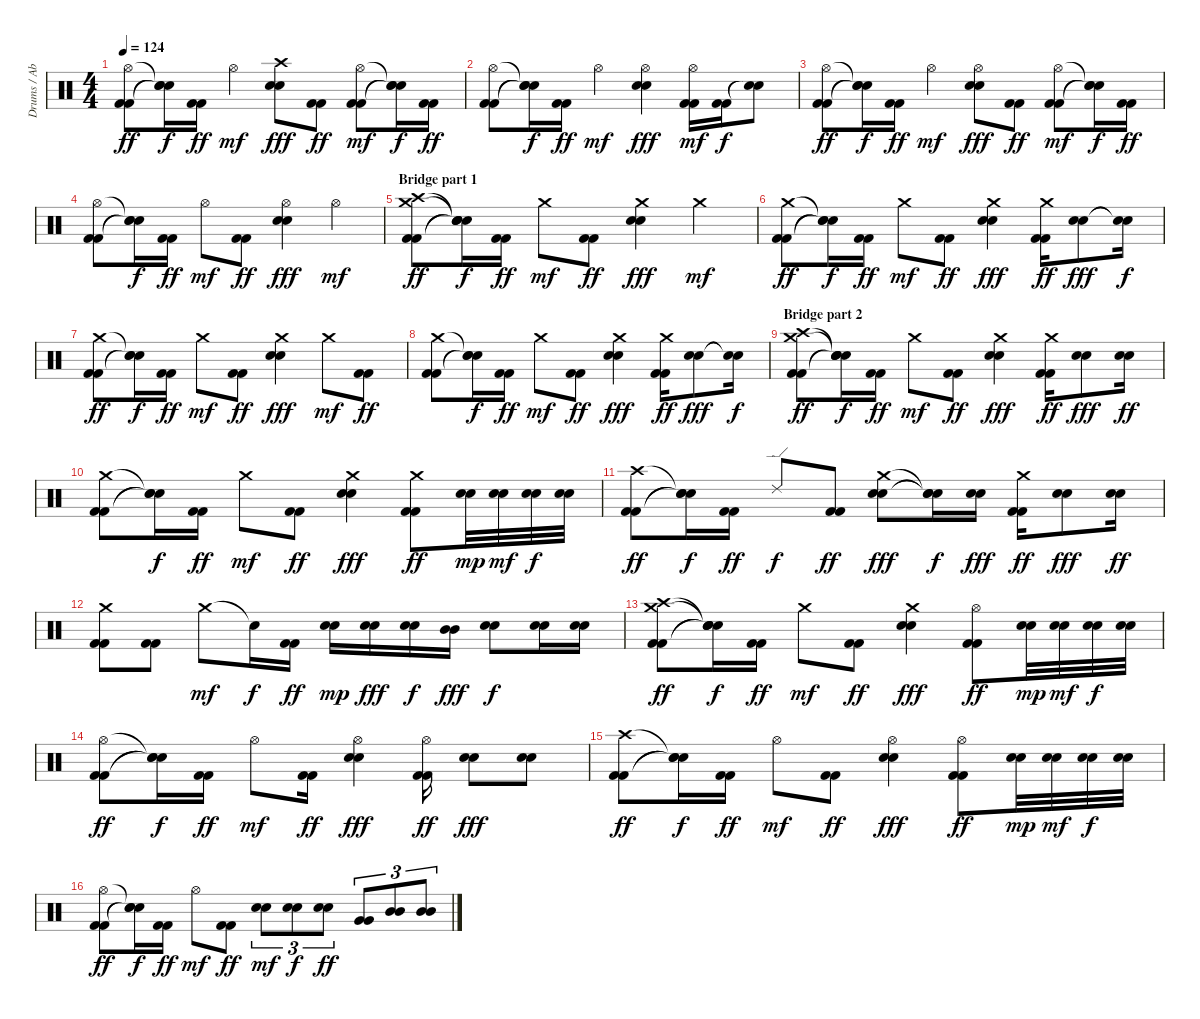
\track ("Drums / Abe Cunningham" "Drums / Ab") {instrument percussion}
\staff {score}
\articulation defaults
\ts (4 4)
\tempo 124
\clef neutral
\ks c
("Hi-Hat (open)" "Kick (hit) 2" "Kick (hit) 2").8{dy ff} ("Snare (hit)"{t} "Snare (hit)"{t} "Snare (hit)"{t}).16{dy f} ("Kick (hit) 2" "Kick (hit) 2").16{dy ff} "Hi-Hat (open)".4{dy mf} ("Crash high (hit)" "Electric Snare (hit)" "Electric Snare (hit)").8{dy fff} ("Kick (hit) 2" "Kick (hit) 2").8{dy ff} ("Hi-Hat (open)" "Kick (hit) 2" "Kick (hit) 2").8{dy mf} ("Snare (hit)"{t} "Snare (hit)"{t} "Snare (hit)"{t}).16{dy f} ("Kick (hit) 2" "Kick (hit) 2").16{dy ff} |
("Hi-Hat (open)" "Kick (hit) 2" "Kick (hit) 2").8 ("Snare (hit)"{t} "Snare (hit)"{t} "Snare (hit)"{t}).16{dy f} ("Kick (hit) 2" "Kick (hit) 2").16{dy ff} "Hi-Hat (open)".4{dy mf} ("Hi-Hat (open)" "Electric Snare (hit)" "Electric Snare (hit)").4{dy fff} ("Hi-Hat (open)" "Kick (hit) 2" "Kick (hit) 2").16{dy mf} ("Kick (hit) 2" "Kick (hit) 2").16{dy f} ("Snare (hit)"{t} "Snare (hit)"{t}).8 |
("Hi-Hat (open)" "Kick (hit) 2" "Kick (hit) 2").8{dy ff} ("Snare (hit)"{t} "Snare (hit)"{t} "Snare (hit)"{t}).16{dy f} ("Kick (hit) 2" "Kick (hit) 2").16{dy ff} "Hi-Hat (open)".4{dy mf} ("Hi-Hat (open)" "Electric Snare (hit)" "Electric Snare (hit)").8{dy fff} ("Kick (hit) 2" "Kick (hit) 2").8{dy ff} ("Hi-Hat (open)" "Kick (hit) 2" "Kick (hit) 2").8{dy mf} ("Snare (hit)"{t} "Snare (hit)"{t} "Snare (hit)"{t}).16{dy f} ("Kick (hit) 2" "Kick (hit) 2").16{dy ff} |
("Hi-Hat (open)" "Kick (hit) 2" "Kick (hit) 2").8 ("Snare (hit)"{t} "Snare (hit)"{t} "Snare (hit)"{t}).16{dy f} ("Kick (hit) 2" "Kick (hit) 2").16{dy ff} "Hi-Hat (open)".8{dy mf} ("Kick (hit) 2" "Kick (hit) 2").8{dy ff} ("Hi-Hat (open)" "Electric Snare (hit)" "Electric Snare (hit)").4{dy fff} "Hi-Hat (open)".4{dy mf} |
\section ("" "Bridge part 1")
("Crash high (hit)" "Crash medium (hit)" "Kick (hit) 2" "Kick (hit) 2").8{dy ff} ("Snare (hit)"{t} "Snare (hit)"{t} "Snare (hit)"{t} "Snare (hit)"{t}).16{dy f} ("Kick (hit) 2" "Kick (hit) 2").16{dy ff} "Crash medium (hit)".8{dy mf} ("Kick (hit) 2" "Kick (hit) 2").8{dy ff} ("Crash medium (hit)" "Electric Snare (hit)" "Electric Snare (hit)").4{dy fff} "Crash medium (hit)".4{dy mf} |
("Crash medium (hit)" "Kick (hit) 2" "Kick (hit) 2").8{dy ff} ("Snare (hit)"{t} "Snare (hit)"{t} "Snare (hit)"{t}).16{dy f} ("Kick (hit) 2" "Kick (hit) 2").16{dy ff} "Crash medium (hit)".8{dy mf} ("Kick (hit) 2" "Kick (hit) 2").8{dy ff} ("Crash medium (hit)" "Electric Snare (hit)" "Electric Snare (hit)").4{dy fff} ("Crash medium (hit)" "Kick (hit) 2" "Kick (hit) 2").16{dy ff} ("Electric Snare (hit)" "Electric Snare (hit)").8{dy fff} ("Snare (hit)"{t} "Snare (hit)"{t}).16{dy f} |
("Crash medium (hit)" "Kick (hit) 2" "Kick (hit) 2").8{dy ff} ("Snare (hit)"{t} "Snare (hit)"{t} "Snare (hit)"{t}).16{dy f} ("Kick (hit) 2" "Kick (hit) 2").16{dy ff} "Crash medium (hit)".8{dy mf} ("Kick (hit) 2" "Kick (hit) 2").8{dy ff} ("Crash medium (hit)" "Electric Snare (hit)" "Electric Snare (hit)").4{dy fff} "Crash medium (hit)".8{dy mf} ("Kick (hit) 2" "Kick (hit) 2").8{dy ff} |
("Crash medium (hit)" "Kick (hit) 2" "Kick (hit) 2").8 ("Snare (hit)"{t} "Snare (hit)"{t} "Snare (hit)"{t}).16{dy f} ("Kick (hit) 2" "Kick (hit) 2").16{dy ff} "Crash medium (hit)".8{dy mf} ("Kick (hit) 2" "Kick (hit) 2").8{dy ff} ("Crash medium (hit)" "Electric Snare (hit)" "Electric Snare (hit)").4{dy fff} ("Crash medium (hit)" "Kick (hit) 2" "Kick (hit) 2").16{dy ff} ("Electric Snare (hit)" "Electric Snare (hit)").8{dy fff} ("Snare (hit)"{t} "Snare (hit)"{t}).16{dy f} |
\section ("" "Bridge part 2")
("Crash high (hit)" "Crash medium (hit)" "Kick (hit) 2" "Kick (hit) 2").8{dy ff} ("Snare (hit)"{t} "Snare (hit)"{t} "Snare (hit)"{t} "Snare (hit)"{t}).16{dy f} ("Kick (hit) 2" "Kick (hit) 2").16{dy ff} "Crash medium (hit)".8{dy mf} ("Kick (hit) 2" "Kick (hit) 2").8{dy ff} ("Crash medium (hit)" "Electric Snare (hit)" "Electric Snare (hit)").4{dy fff} ("Crash medium (hit)" "Kick (hit) 2" "Kick (hit) 2").16{dy ff} ("Electric Snare (hit)" "Electric Snare (hit)").8{dy fff} ("Electric Snare (hit)" "Electric Snare (hit)").16{dy ff} |
("Crash medium (hit)" "Kick (hit) 2" "Kick (hit) 2").8 ("Snare (hit)"{t} "Snare (hit)"{t} "Snare (hit)"{t}).16{dy f} ("Kick (hit) 2" "Kick (hit) 2").16{dy ff} "Crash medium (hit)".8{dy mf} ("Kick (hit) 2" "Kick (hit) 2").8{dy ff} ("Crash medium (hit)" "Electric Snare (hit)" "Electric Snare (hit)").4{dy fff} ("Crash medium (hit)" "Kick (hit) 2" "Kick (hit) 2").8{dy ff} ("Electric Snare (hit)" "Electric Snare (hit)").32{dy mp} ("Electric Snare (hit)" "Electric Snare (hit)").32{dy mf} ("Electric Snare (hit)" "Electric Snare (hit)").32{dy f} ("Electric Snare (hit)" "Electric Snare (hit)").32 |
("Crash high (hit)" "Kick (hit) 2" "Kick (hit) 2").8{dy ff} ("Snare (hit)"{t} "Snare (hit)"{t} "Snare (hit)"{t}).16{dy f} ("Kick (hit) 2" "Kick (hit) 2").16{dy ff} "Ride (edge) 2".8{dy f} ("Kick (hit) 2" "Kick (hit) 2").8{dy ff} ("Crash medium (hit)" "Electric Snare (hit)" "Electric Snare (hit)").8{dy fff} ("Snare (hit)"{t} "Snare (hit)"{t} "Snare (hit)"{t}).16{dy f} ("Electric Snare (hit)" "Electric Snare (hit)").16{dy fff} ("Crash medium (hit)" "Kick (hit) 2" "Kick (hit) 2").16{dy ff} ("Electric Snare (hit)" "Electric Snare (hit)").8{dy fff} ("Electric Snare (hit)" "Electric Snare (hit)").16{dy ff} |
("Crash medium (hit)" "Kick (hit) 2" "Kick (hit) 2").8 ("Kick (hit) 2" "Kick (hit) 2").8 "Crash medium (hit)".8{dy mf} "Snare (hit)"{t}.16{dy f} ("Kick (hit) 2" "Kick (hit) 2").16{dy ff} ("Electric Snare (hit)" "Electric Snare (hit)").16{dy mp} ("Electric Snare (hit)" "Electric Snare (hit)").16{dy fff} ("Electric Snare (hit)" "Electric Snare (hit)").16{dy f} ("Mid Tom (hit)" "Mid Tom (hit)").16{dy fff} ("Electric Snare (hit)" "Electric Snare (hit)").8{dy f} ("Electric Snare (hit)" "Electric Snare (hit)").16 ("Electric Snare (hit)" "Electric Snare (hit)").16 |
("Crash high (hit)" "Crash medium (hit)" "Kick (hit) 2" "Kick (hit) 2").8{dy ff} ("Snare (hit)"{t} "Snare (hit)"{t} "Snare (hit)"{t} "Snare (hit)"{t}).16{dy f} ("Kick (hit) 2" "Kick (hit) 2").16{dy ff} "Crash medium (hit)".8{dy mf} ("Kick (hit) 2" "Kick (hit) 2").8{dy ff} ("Crash medium (hit)" "Electric Snare (hit)" "Electric Snare (hit)").4{dy fff} ("Hi-Hat (open)" "Kick (hit) 2" "Kick (hit) 2").8{dy ff} ("Electric Snare (hit)" "Electric Snare (hit)").32{dy mp} ("Electric Snare (hit)" "Electric Snare (hit)").32{dy mf} ("Electric Snare (hit)" "Electric Snare (hit)").32{dy f} ("Electric Snare (hit)" "Electric Snare (hit)").32 |
("Hi-Hat (open)" "Kick (hit) 2" "Kick (hit) 2").8{dy ff} ("Snare (hit)"{t} "Snare (hit)"{t} "Snare (hit)"{t}).16{dy f} ("Kick (hit) 2" "Kick (hit) 2").16{dy ff} "Hi-Hat (open)".8{dy mf} ("Kick (hit) 2" "Kick (hit) 2").16{dy ff} ("Hi-Hat (open)" "Electric Snare (hit)" "Electric Snare (hit)").4{dy fff} ("Hi-Hat (open)" "Kick (hit) 2" "Kick (hit) 2").16{dy ff} ("Electric Snare (hit)" "Electric Snare (hit)").8{dy fff} ("Electric Snare (hit)" "Electric Snare (hit)").8 |
("Crash high (hit)" "Kick (hit) 2" "Kick (hit) 2").8{dy ff} ("Snare (hit)"{t} "Snare (hit)"{t} "Snare (hit)"{t}).16{dy f} ("Kick (hit) 2" "Kick (hit) 2").16{dy ff} "Hi-Hat (open)".8{dy mf} ("Kick (hit) 2" "Kick (hit) 2").8{dy ff} ("Hi-Hat (open)" "Electric Snare (hit)" "Electric Snare (hit)").4{dy fff} ("Hi-Hat (open)" "Kick (hit) 2" "Kick (hit) 2").8{dy ff} ("Electric Snare (hit)" "Electric Snare (hit)").32{dy mp} ("Electric Snare (hit)" "Electric Snare (hit)").32{dy mf} ("Electric Snare (hit)" "Electric Snare (hit)").32{dy f} ("Electric Snare (hit)" "Electric Snare (hit)").32 |
("Hi-Hat (open)" "Kick (hit) 2" "Kick (hit) 2").8{dy ff} ("Snare (hit)"{t} "Snare (hit)"{t} "Snare (hit)"{t}).16{dy f} ("Kick (hit) 2" "Kick (hit) 2").16{dy ff} "Hi-Hat (open)".8{dy mf} ("Kick (hit) 2" "Kick (hit) 2").8{dy ff} ("Electric Snare (hit)" "Electric Snare (hit)").8{tu (3 2) dy mf} ("Electric Snare (hit)" "Electric Snare (hit)").8{tu (3 2) dy f} ("Electric Snare (hit)" "Electric Snare (hit)").8{tu (3 2) dy ff} ("Very Low Tom (hit)" "Very Low Tom (hit)").8{tu (3 2)} ("Mid Tom (hit)" "Mid Tom (hit)").8{tu (3 2)} ("Mid Tom (hit)" "Mid Tom (hit)").8{tu (3 2)}
